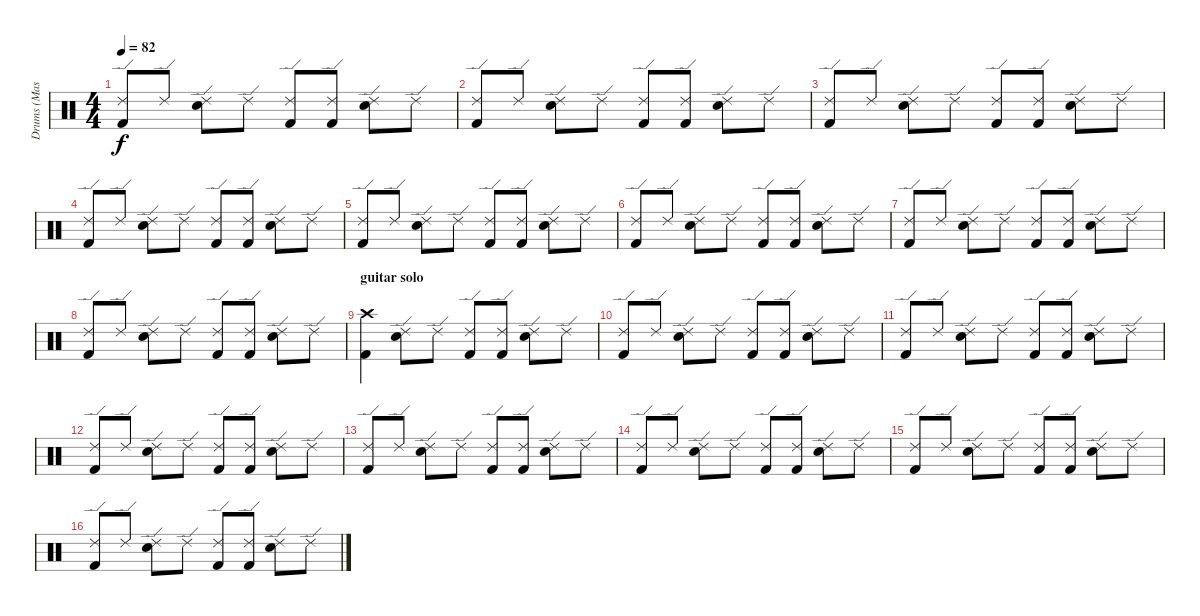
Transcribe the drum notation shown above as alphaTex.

\track ("Drums (Mason)" "Drums (Mas") {instrument percussion}
\staff {score}
\articulation defaults
\ts (4 4)
\tempo 82
\clef neutral
\ks c
("Ride (edge) 2" "Kick (hit) 2").8{dy f} "Ride (edge) 2".8 ("Ride (edge) 2" "Electric Snare (hit)").8 "Ride (edge) 2".8 ("Ride (edge) 2" "Kick (hit) 2").8 ("Ride (edge) 2" "Kick (hit) 2").8 ("Ride (edge) 2" "Electric Snare (hit)").8 "Ride (edge) 2".8 |
("Ride (edge) 2" "Kick (hit) 2").8 "Ride (edge) 2".8 ("Ride (edge) 2" "Electric Snare (hit)").8 "Ride (edge) 2".8 ("Ride (edge) 2" "Kick (hit) 2").8 ("Ride (edge) 2" "Kick (hit) 2").8 ("Ride (edge) 2" "Electric Snare (hit)").8 "Ride (edge) 2".8 |
("Ride (edge) 2" "Kick (hit) 2").8 "Ride (edge) 2".8 ("Ride (edge) 2" "Electric Snare (hit)").8 "Ride (edge) 2".8 ("Ride (edge) 2" "Kick (hit) 2").8 ("Ride (edge) 2" "Kick (hit) 2").8 ("Ride (edge) 2" "Electric Snare (hit)").8 "Ride (edge) 2".8 |
("Ride (edge) 2" "Kick (hit) 2").8 "Ride (edge) 2".8 ("Ride (edge) 2" "Electric Snare (hit)").8 "Ride (edge) 2".8 ("Ride (edge) 2" "Kick (hit) 2").8 ("Ride (edge) 2" "Kick (hit) 2").8 ("Ride (edge) 2" "Electric Snare (hit)").8 "Ride (edge) 2".8 |
("Ride (edge) 2" "Kick (hit) 2").8 "Ride (edge) 2".8 ("Ride (edge) 2" "Electric Snare (hit)").8 "Ride (edge) 2".8 ("Ride (edge) 2" "Kick (hit) 2").8 ("Ride (edge) 2" "Kick (hit) 2").8 ("Ride (edge) 2" "Electric Snare (hit)").8 "Ride (edge) 2".8 |
("Ride (edge) 2" "Kick (hit) 2").8 "Ride (edge) 2".8 ("Ride (edge) 2" "Electric Snare (hit)").8 "Ride (edge) 2".8 ("Ride (edge) 2" "Kick (hit) 2").8 ("Ride (edge) 2" "Kick (hit) 2").8 ("Ride (edge) 2" "Electric Snare (hit)").8 "Ride (edge) 2".8 |
("Ride (edge) 2" "Kick (hit) 2").8 "Ride (edge) 2".8 ("Ride (edge) 2" "Electric Snare (hit)").8 "Ride (edge) 2".8 ("Ride (edge) 2" "Kick (hit) 2").8 ("Ride (edge) 2" "Kick (hit) 2").8 ("Ride (edge) 2" "Electric Snare (hit)").8 "Ride (edge) 2".8 |
("Ride (edge) 2" "Kick (hit) 2").8 "Ride (edge) 2".8 ("Ride (edge) 2" "Electric Snare (hit)").8 "Ride (edge) 2".8 ("Ride (edge) 2" "Kick (hit) 2").8 ("Ride (edge) 2" "Kick (hit) 2").8 ("Ride (edge) 2" "Electric Snare (hit)").8 "Ride (edge) 2".8 |
\section ("" "guitar solo")
("Crash high (hit)" "Kick (hit) 2").4 ("Ride (edge) 2" "Electric Snare (hit)").8 "Ride (edge) 2".8 ("Ride (edge) 2" "Kick (hit) 2").8 ("Ride (edge) 2" "Kick (hit) 2").8 ("Ride (edge) 2" "Electric Snare (hit)").8 "Ride (edge) 2".8 |
("Ride (edge) 2" "Kick (hit) 2").8 "Ride (edge) 2".8 ("Ride (edge) 2" "Electric Snare (hit)").8 "Ride (edge) 2".8 ("Ride (edge) 2" "Kick (hit) 2").8 ("Ride (edge) 2" "Kick (hit) 2").8 ("Ride (edge) 2" "Electric Snare (hit)").8 "Ride (edge) 2".8 |
("Ride (edge) 2" "Kick (hit) 2").8 "Ride (edge) 2".8 ("Ride (edge) 2" "Electric Snare (hit)").8 "Ride (edge) 2".8 ("Ride (edge) 2" "Kick (hit) 2").8 ("Ride (edge) 2" "Kick (hit) 2").8 ("Ride (edge) 2" "Electric Snare (hit)").8 "Ride (edge) 2".8 |
("Ride (edge) 2" "Kick (hit) 2").8 "Ride (edge) 2".8 ("Ride (edge) 2" "Electric Snare (hit)").8 "Ride (edge) 2".8 ("Ride (edge) 2" "Kick (hit) 2").8 ("Ride (edge) 2" "Kick (hit) 2").8 ("Ride (edge) 2" "Electric Snare (hit)").8 "Ride (edge) 2".8 |
("Ride (edge) 2" "Kick (hit) 2").8 "Ride (edge) 2".8 ("Ride (edge) 2" "Electric Snare (hit)").8 "Ride (edge) 2".8 ("Ride (edge) 2" "Kick (hit) 2").8 ("Ride (edge) 2" "Kick (hit) 2").8 ("Ride (edge) 2" "Electric Snare (hit)").8 "Ride (edge) 2".8 |
("Ride (edge) 2" "Kick (hit) 2").8 "Ride (edge) 2".8 ("Ride (edge) 2" "Electric Snare (hit)").8 "Ride (edge) 2".8 ("Ride (edge) 2" "Kick (hit) 2").8 ("Ride (edge) 2" "Kick (hit) 2").8 ("Ride (edge) 2" "Electric Snare (hit)").8 "Ride (edge) 2".8 |
("Ride (edge) 2" "Kick (hit) 2").8 "Ride (edge) 2".8 ("Ride (edge) 2" "Electric Snare (hit)").8 "Ride (edge) 2".8 ("Ride (edge) 2" "Kick (hit) 2").8 ("Ride (edge) 2" "Kick (hit) 2").8 ("Ride (edge) 2" "Electric Snare (hit)").8 "Ride (edge) 2".8 |
("Ride (edge) 2" "Kick (hit) 2").8 "Ride (edge) 2".8 ("Ride (edge) 2" "Electric Snare (hit)").8 "Ride (edge) 2".8 ("Ride (edge) 2" "Kick (hit) 2").8 ("Ride (edge) 2" "Kick (hit) 2").8 ("Ride (edge) 2" "Electric Snare (hit)").8 "Ride (edge) 2".8
